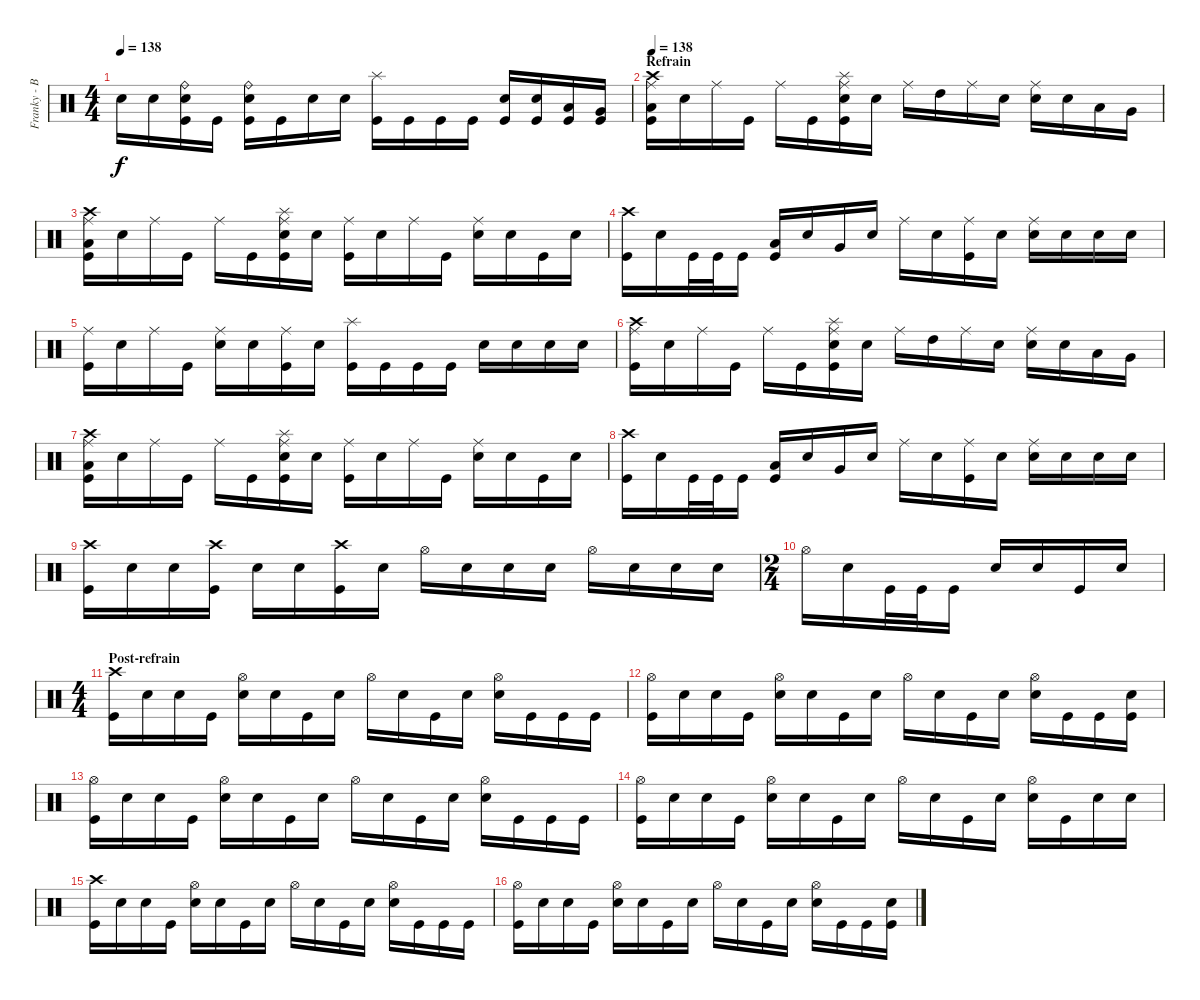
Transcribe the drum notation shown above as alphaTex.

\track ("Franky - Batterie" "Franky - B") {instrument percussion}
\staff {score}
\articulation defaults
\ts (4 4)
\tempo 138
\clef neutral
\ks c "Snare (hit)".16{dy f} "Snare (hit)".16
("Ride (bell)" "Electric Snare (hit)" "Kick (hit)").16 "Kick (hit)".16 ("Ride (bell)" "Electric Snare (hit)" "Kick (hit)").16 "Kick (hit)".16 "Snare (hit)".16 "Snare (hit)".16 ("Splash (hit)" "Kick (hit)").16 "Kick (hit)".16 "Kick (hit)".16 "Kick (hit)".16 ("Electric Snare (hit)" "Kick (hit)").16 ("Electric Snare (hit)" "Kick (hit)").16 ("Low Tom (hit)" "Kick (hit)").16 ("Very Low Tom (hit)" "Kick (hit)").16 |
\section ("" "Refrain")
\tempo 138
("Crash high (hit)" "Ride (middle)" "Low Floor Tom (hit)" "Kick (hit)").16{volume 16 balance 8} "Snare (hit)".16 "Ride (middle)".16 "Kick (hit)".16 "Ride (middle)".16 "Kick (hit)".16 ("Splash (hit)" "Ride (middle)" "Electric Snare (hit)" "Kick (hit)").16 "Snare (hit)".16 "Ride (middle)".16 "High Tom (hit)".16 "Ride (middle)".16 "Snare (hit)".16 ("Ride (middle)" "Electric Snare (hit)").16 "Snare (hit)".16 "Low Tom (hit)".16 "Very Low Tom (hit)".16 |
("Crash high (hit)" "Ride (middle)" "Low Floor Tom (hit)" "Kick (hit)").16 "Snare (hit)".16 "Ride (middle)".16 "Kick (hit)".16 "Ride (middle)".16 "Kick (hit)".16 ("Splash (hit)" "Ride (middle)" "Electric Snare (hit)" "Kick (hit)").16 "Snare (hit)".16 ("Ride (middle)" "Kick (hit)").16 "Snare (hit)".16 "Ride (middle)".16 "Kick (hit)".16 ("Ride (middle)" "Electric Snare (hit)").16 "Snare (hit)".16 "Kick (hit)".16 "Snare (hit)".16 |
("Crash high (hit)" "Kick (hit)").16 "Snare (hit)".16 "Kick (hit)".32 "Kick (hit)".32 "Kick (hit)".16 ("Low Tom (hit)" "Kick (hit)").16 "Snare (hit)".16 "Very Low Tom (hit)".16 "Snare (hit)".16 "Ride (middle)".16 "Electric Snare (hit)".16 ("Ride (middle)" "Kick (hit)").16 "Snare (hit)".16 ("Ride (middle)" "Electric Snare (hit)").16 "Snare (hit)".16 "Electric Snare (hit)".16 "Electric Snare (hit)".16 |
("Ride (middle)" "Kick (hit)").16 "Snare (hit)".16 "Ride (middle)".16 "Kick (hit)".16 ("Ride (middle)" "Electric Snare (hit)").16 "Snare (hit)".16 ("Ride (middle)" "Kick (hit)").16 "Snare (hit)".16 ("Splash (hit)" "Kick (hit)").16 "Kick (hit)".16 "Kick (hit)".16 "Kick (hit)".16 "Electric Snare (hit)".16 "Electric Snare (hit)".16 "Electric Snare (hit)".16 "Electric Snare (hit)".16 |
("Crash high (hit)" "Ride (middle)" "Kick (hit)").16 "Snare (hit)".16 "Ride (middle)".16 "Kick (hit)".16 "Ride (middle)".16 "Kick (hit)".16 ("Splash (hit)" "Ride (middle)" "Electric Snare (hit)" "Kick (hit)").16 "Snare (hit)".16 "Ride (middle)".16 "High Tom (hit)".16 "Ride (middle)".16 "Snare (hit)".16 ("Ride (middle)" "Electric Snare (hit)").16 "Snare (hit)".16 "Low Tom (hit)".16 "Very Low Tom (hit)".16 |
("Crash high (hit)" "Ride (middle)" "Low Floor Tom (hit)" "Kick (hit)").16 "Snare (hit)".16 "Ride (middle)".16 "Kick (hit)".16 "Ride (middle)".16 "Kick (hit)".16 ("Splash (hit)" "Ride (middle)" "Electric Snare (hit)" "Kick (hit)").16 "Snare (hit)".16 ("Ride (middle)" "Kick (hit)").16 "Snare (hit)".16 "Ride (middle)".16 "Kick (hit)".16 ("Ride (middle)" "Electric Snare (hit)").16 "Snare (hit)".16 "Kick (hit)".16 "Snare (hit)".16 |
("Crash high (hit)" "Kick (hit)").16 "Snare (hit)".16 "Kick (hit)".32 "Kick (hit)".32 "Kick (hit)".16 ("Low Tom (hit)" "Kick (hit)").16 "Snare (hit)".16 "Very Low Tom (hit)".16 "Snare (hit)".16 "Ride (middle)".16 "Electric Snare (hit)".16 ("Ride (middle)" "Kick (hit)").16 "Snare (hit)".16 ("Ride (middle)" "Electric Snare (hit)").16 "Snare (hit)".16 "Electric Snare (hit)".16 "Electric Snare (hit)".16 |
("Crash high (hit)" "Kick (hit)").16 "Snare (hit)".16 "Snare (hit)".16 ("Crash high (hit)" "Kick (hit)").16 "Snare (hit)".16 "Snare (hit)".16 ("Crash high (hit)" "Kick (hit)").16 "Snare (hit)".16 "Hi-Hat (open)".16 "Snare (hit)".16 "Snare (hit)".16 "Snare (hit)".16 "Hi-Hat (open)".16 "Snare (hit)".16 "Snare (hit)".16 "Snare (hit)".16 |
\ts (2 4)
"Hi-Hat (open)".16 "Snare (hit)".16 "Kick (hit)".32 "Kick (hit)".32 "Kick (hit)".16 "Electric Snare (hit)".16 "Snare (hit)".16 "Kick (hit)".16 "Snare (hit)".16 |
\ts (4 4)
\section ("" "Post-refrain")
("Crash high (hit)" "Kick (hit)").16 "Snare (hit)".16 "Snare (hit)".16 "Kick (hit)".16 ("Hi-Hat (open)" "Electric Snare (hit)").16 "Snare (hit)".16 "Kick (hit)".16 "Snare (hit)".16 "Hi-Hat (open)".16 "Snare (hit)".16 "Kick (hit)".16 "Snare (hit)".16 ("Hi-Hat (open)" "Electric Snare (hit)").16 "Kick (hit)".16 "Kick (hit)".16 "Kick (hit)".16 |
("Hi-Hat (open)" "Kick (hit)").16 "Snare (hit)".16 "Snare (hit)".16 "Kick (hit)".16 ("Hi-Hat (open)" "Electric Snare (hit)").16 "Snare (hit)".16 "Kick (hit)".16 "Snare (hit)".16 "Hi-Hat (open)".16 "Electric Snare (hit)".16 "Kick (hit)".16 "Snare (hit)".16 ("Hi-Hat (open)" "Electric Snare (hit)").16 "Kick (hit)".16 "Kick (hit)".16 ("Electric Snare (hit)" "Kick (hit)").16 |
("Hi-Hat (open)" "Kick (hit)").16 "Snare (hit)".16 "Snare (hit)".16 "Kick (hit)".16 ("Hi-Hat (open)" "Electric Snare (hit)").16 "Snare (hit)".16 "Kick (hit)".16 "Snare (hit)".16 "Hi-Hat (open)".16 "Snare (hit)".16 "Kick (hit)".16 "Snare (hit)".16 ("Hi-Hat (open)" "Electric Snare (hit)").16 "Kick (hit)".16 "Kick (hit)".16 "Kick (hit)".16 |
("Hi-Hat (open)" "Kick (hit)").16 "Snare (hit)".16 "Snare (hit)".16 "Kick (hit)".16 ("Hi-Hat (open)" "Electric Snare (hit)").16 "Snare (hit)".16 "Kick (hit)".16 "Snare (hit)".16 "Hi-Hat (open)".16 "Electric Snare (hit)".16 "Kick (hit)".16 "Snare (hit)".16 ("Hi-Hat (open)" "Electric Snare (hit)").16 "Kick (hit)".16 "Electric Snare (hit)".16 "Electric Snare (hit)".16 |
("Crash high (hit)" "Kick (hit)").16 "Snare (hit)".16 "Snare (hit)".16 "Kick (hit)".16 ("Hi-Hat (open)" "Electric Snare (hit)").16 "Snare (hit)".16 "Kick (hit)".16 "Snare (hit)".16 "Hi-Hat (open)".16 "Snare (hit)".16 "Kick (hit)".16 "Snare (hit)".16 ("Hi-Hat (open)" "Electric Snare (hit)").16 "Kick (hit)".16 "Kick (hit)".16 "Kick (hit)".16 |
("Hi-Hat (open)" "Kick (hit)").16 "Snare (hit)".16 "Snare (hit)".16 "Kick (hit)".16 ("Hi-Hat (open)" "Electric Snare (hit)").16 "Snare (hit)".16 "Kick (hit)".16 "Snare (hit)".16 "Hi-Hat (open)".16 "Electric Snare (hit)".16 "Kick (hit)".16 "Snare (hit)".16 ("Hi-Hat (open)" "Electric Snare (hit)").16 "Kick (hit)".16 "Kick (hit)".16 ("Electric Snare (hit)" "Kick (hit)").16
